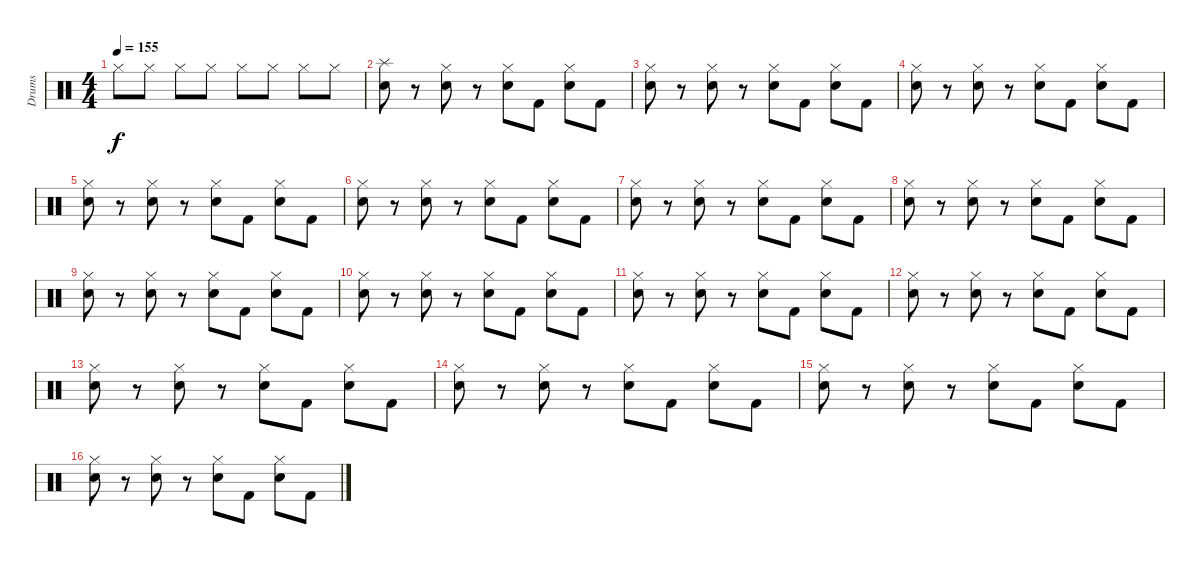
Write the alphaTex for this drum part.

\track ("Drums" "Drums") {instrument percussion}
\staff {score}
\articulation defaults
\ts (4 4)
\tempo 155
\clef neutral
\ks c "Hi-Hat (closed)".8{dy f} "Hi-Hat (closed)".8 "Hi-Hat (closed)".8 "Hi-Hat (closed)".8 "Hi-Hat (closed)".8 "Hi-Hat (closed)".8 "Hi-Hat (closed)".8 "Hi-Hat (closed)".8
|
("Splash (hit)" "Electric Snare (hit)").8 r.8 ("Hi-Hat (closed)" "Electric Snare (hit)").8 r.8 ("Hi-Hat (closed)" "Electric Snare (hit)").8 "Kick (hit) 2".8 ("Hi-Hat (closed)" "Electric Snare (hit)").8 "Kick (hit) 2".8 |
("Hi-Hat (closed)" "Electric Snare (hit)").8 r.8 ("Hi-Hat (closed)" "Electric Snare (hit)").8 r.8 ("Hi-Hat (closed)" "Electric Snare (hit)").8 "Kick (hit) 2".8 ("Hi-Hat (closed)" "Electric Snare (hit)").8 "Kick (hit) 2".8 |
("Hi-Hat (closed)" "Electric Snare (hit)").8 r.8 ("Hi-Hat (closed)" "Electric Snare (hit)").8 r.8 ("Hi-Hat (closed)" "Electric Snare (hit)").8 "Kick (hit) 2".8 ("Hi-Hat (closed)" "Electric Snare (hit)").8 "Kick (hit) 2".8 |
("Hi-Hat (closed)" "Electric Snare (hit)").8 r.8 ("Hi-Hat (closed)" "Electric Snare (hit)").8 r.8 ("Hi-Hat (closed)" "Electric Snare (hit)").8 "Kick (hit) 2".8 ("Hi-Hat (closed)" "Electric Snare (hit)").8 "Kick (hit) 2".8 |
("Hi-Hat (closed)" "Electric Snare (hit)").8 r.8 ("Hi-Hat (closed)" "Electric Snare (hit)").8 r.8 ("Hi-Hat (closed)" "Electric Snare (hit)").8 "Kick (hit) 2".8 ("Hi-Hat (closed)" "Electric Snare (hit)").8 "Kick (hit) 2".8 |
("Hi-Hat (closed)" "Electric Snare (hit)").8 r.8 ("Hi-Hat (closed)" "Electric Snare (hit)").8 r.8 ("Hi-Hat (closed)" "Electric Snare (hit)").8 "Kick (hit) 2".8 ("Hi-Hat (closed)" "Electric Snare (hit)").8 "Kick (hit) 2".8 |
("Hi-Hat (closed)" "Electric Snare (hit)").8 r.8 ("Hi-Hat (closed)" "Electric Snare (hit)").8 r.8 ("Hi-Hat (closed)" "Electric Snare (hit)").8 "Kick (hit) 2".8 ("Hi-Hat (closed)" "Electric Snare (hit)").8 "Kick (hit) 2".8 |
("Hi-Hat (closed)" "Electric Snare (hit)").8 r.8 ("Hi-Hat (closed)" "Electric Snare (hit)").8 r.8 ("Hi-Hat (closed)" "Electric Snare (hit)").8 "Kick (hit) 2".8 ("Hi-Hat (closed)" "Electric Snare (hit)").8 "Kick (hit) 2".8 |
("Hi-Hat (closed)" "Electric Snare (hit)").8 r.8 ("Hi-Hat (closed)" "Electric Snare (hit)").8 r.8 ("Hi-Hat (closed)" "Electric Snare (hit)").8 "Kick (hit) 2".8 ("Hi-Hat (closed)" "Electric Snare (hit)").8 "Kick (hit) 2".8 |
("Hi-Hat (closed)" "Electric Snare (hit)").8 r.8 ("Hi-Hat (closed)" "Electric Snare (hit)").8 r.8 ("Hi-Hat (closed)" "Electric Snare (hit)").8 "Kick (hit) 2".8 ("Hi-Hat (closed)" "Electric Snare (hit)").8 "Kick (hit) 2".8 |
("Hi-Hat (closed)" "Electric Snare (hit)").8 r.8 ("Hi-Hat (closed)" "Electric Snare (hit)").8 r.8 ("Hi-Hat (closed)" "Electric Snare (hit)").8 "Kick (hit) 2".8 ("Hi-Hat (closed)" "Electric Snare (hit)").8 "Kick (hit) 2".8 |
("Hi-Hat (closed)" "Electric Snare (hit)").8 r.8 ("Hi-Hat (closed)" "Electric Snare (hit)").8 r.8 ("Hi-Hat (closed)" "Electric Snare (hit)").8 "Kick (hit) 2".8 ("Hi-Hat (closed)" "Electric Snare (hit)").8 "Kick (hit) 2".8 |
("Hi-Hat (closed)" "Electric Snare (hit)").8 r.8 ("Hi-Hat (closed)" "Electric Snare (hit)").8 r.8 ("Hi-Hat (closed)" "Electric Snare (hit)").8 "Kick (hit) 2".8 ("Hi-Hat (closed)" "Electric Snare (hit)").8 "Kick (hit) 2".8 |
("Hi-Hat (closed)" "Electric Snare (hit)").8 r.8 ("Hi-Hat (closed)" "Electric Snare (hit)").8 r.8 ("Hi-Hat (closed)" "Electric Snare (hit)").8 "Kick (hit) 2".8 ("Hi-Hat (closed)" "Electric Snare (hit)").8 "Kick (hit) 2".8 |
("Hi-Hat (closed)" "Electric Snare (hit)").8 r.8 ("Hi-Hat (closed)" "Electric Snare (hit)").8 r.8 ("Hi-Hat (closed)" "Electric Snare (hit)").8 "Kick (hit) 2".8 ("Hi-Hat (closed)" "Electric Snare (hit)").8 "Kick (hit) 2".8
